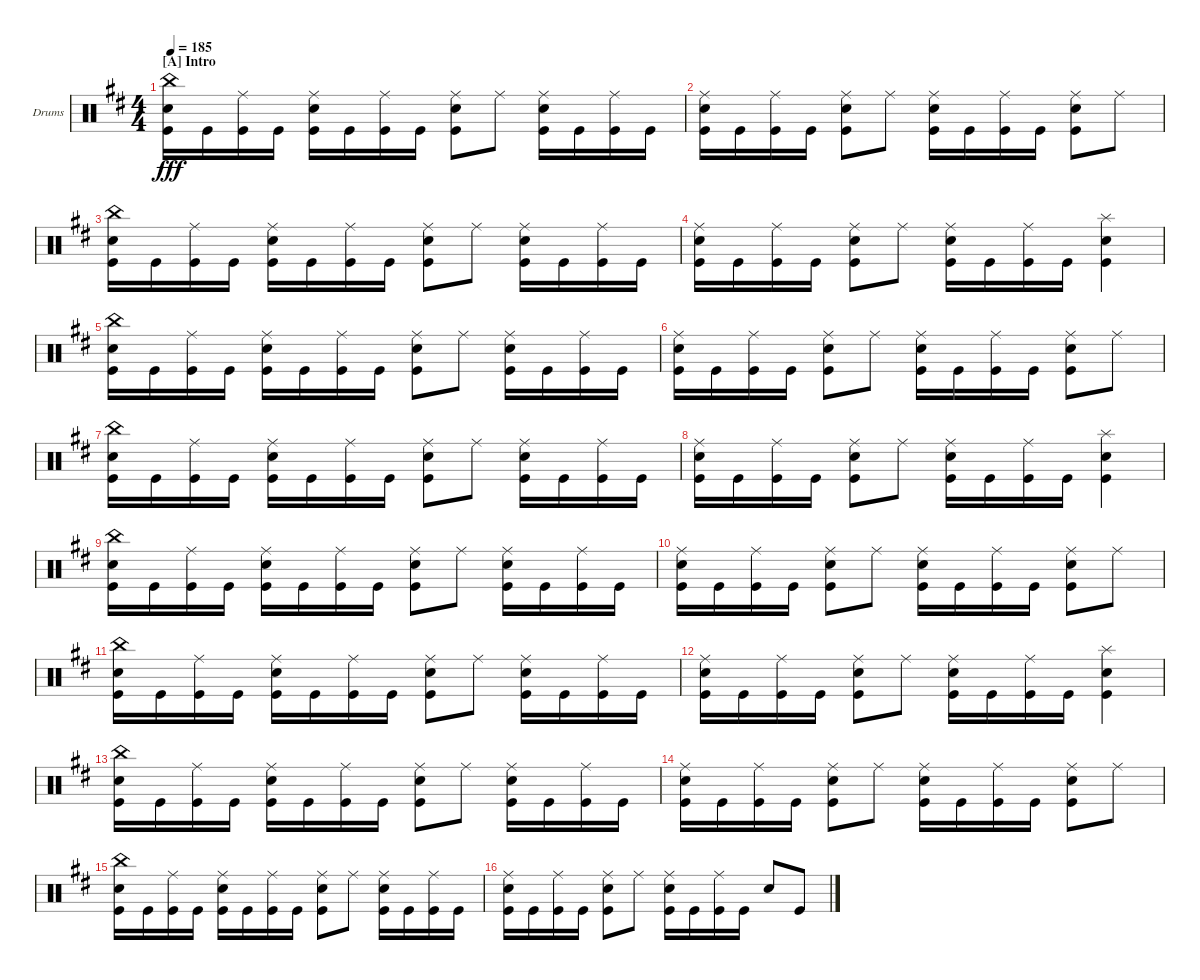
\defaultSystemsLayout 4
\bracketExtendMode groupsimilarinstruments
\firstSystemTrackNameOrientation horizontal
\otherSystemsTrackNameOrientation horizontal
\track ("Drumkit" "Drums") {instrument percussion}
\staff {score}
\articulation defaults
\ts (4 4)
\section ("A" "Intro")
\tempo 185
\clef neutral
\ks bminor
("Snare (hit) 2" "China (hit)" "Kick (hit)").16{dy fff} "Kick (hit)".16 ("Kick (hit)" "Ride (middle)").16 "Kick (hit)".16 ("Snare (hit) 2" "Ride (middle)" "Kick (hit)").16 "Kick (hit)".16 ("Kick (hit)" "Ride (middle)").16 "Kick (hit)".16 ("Snare (hit) 2" "Ride (middle)" "Kick (hit)").8 "Ride (middle)".8 ("Snare (hit) 2" "Ride (middle)" "Kick (hit)").16 "Kick (hit)".16 ("Kick (hit)" "Ride (middle)").16 "Kick (hit)".16 |
("Snare (hit) 2" "Ride (middle)" "Kick (hit)").16 "Kick (hit)".16 ("Kick (hit)" "Ride (middle)").16 "Kick (hit)".16 ("Snare (hit) 2" "Ride (middle)" "Kick (hit)").8 "Ride (middle)".8 ("Snare (hit) 2" "Ride (middle)" "Kick (hit)").16 "Kick (hit)".16 ("Kick (hit)" "Ride (middle)").16 "Kick (hit)".16 ("Snare (hit) 2" "Ride (middle)" "Kick (hit)").8 "Ride (middle)".8 |
("Snare (hit) 2" "China (hit)" "Kick (hit)").16 "Kick (hit)".16 ("Kick (hit)" "Ride (middle)").16 "Kick (hit)".16 ("Snare (hit) 2" "Ride (middle)" "Kick (hit)").16 "Kick (hit)".16 ("Kick (hit)" "Ride (middle)").16 "Kick (hit)".16 ("Snare (hit) 2" "Ride (middle)" "Kick (hit)").8 "Ride (middle)".8 ("Snare (hit) 2" "Ride (middle)" "Kick (hit)").16 "Kick (hit)".16 ("Kick (hit)" "Ride (middle)").16 "Kick (hit)".16 |
("Snare (hit) 2" "Ride (middle)" "Kick (hit)").16 "Kick (hit)".16 ("Kick (hit)" "Ride (middle)").16 "Kick (hit)".16 ("Snare (hit) 2" "Ride (middle)" "Kick (hit)").8 "Ride (middle)".8 ("Snare (hit) 2" "Ride (middle)" "Kick (hit)").16 "Kick (hit)".16 ("Kick (hit)" "Ride (middle)").16 "Kick (hit)".16 ("Snare (hit) 2" "Kick (hit)" "Splash (hit)").4 |
("Snare (hit) 2" "China (hit)" "Kick (hit)").16 "Kick (hit)".16 ("Kick (hit)" "Ride (middle)").16 "Kick (hit)".16 ("Snare (hit) 2" "Ride (middle)" "Kick (hit)").16 "Kick (hit)".16 ("Kick (hit)" "Ride (middle)").16 "Kick (hit)".16 ("Snare (hit) 2" "Ride (middle)" "Kick (hit)").8 "Ride (middle)".8 ("Snare (hit) 2" "Ride (middle)" "Kick (hit)").16 "Kick (hit)".16 ("Kick (hit)" "Ride (middle)").16 "Kick (hit)".16 |
("Snare (hit) 2" "Ride (middle)" "Kick (hit)").16 "Kick (hit)".16 ("Kick (hit)" "Ride (middle)").16 "Kick (hit)".16 ("Snare (hit) 2" "Ride (middle)" "Kick (hit)").8 "Ride (middle)".8 ("Snare (hit) 2" "Ride (middle)" "Kick (hit)").16 "Kick (hit)".16 ("Kick (hit)" "Ride (middle)").16 "Kick (hit)".16 ("Snare (hit) 2" "Ride (middle)" "Kick (hit)").8 "Ride (middle)".8 |
("Snare (hit) 2" "China (hit)" "Kick (hit)").16 "Kick (hit)".16 ("Kick (hit)" "Ride (middle)").16 "Kick (hit)".16 ("Snare (hit) 2" "Ride (middle)" "Kick (hit)").16 "Kick (hit)".16 ("Kick (hit)" "Ride (middle)").16 "Kick (hit)".16 ("Snare (hit) 2" "Ride (middle)" "Kick (hit)").8 "Ride (middle)".8 ("Snare (hit) 2" "Ride (middle)" "Kick (hit)").16 "Kick (hit)".16 ("Kick (hit)" "Ride (middle)").16 "Kick (hit)".16 |
("Snare (hit) 2" "Ride (middle)" "Kick (hit)").16 "Kick (hit)".16 ("Kick (hit)" "Ride (middle)").16 "Kick (hit)".16 ("Snare (hit) 2" "Ride (middle)" "Kick (hit)").8 "Ride (middle)".8 ("Snare (hit) 2" "Ride (middle)" "Kick (hit)").16 "Kick (hit)".16 ("Kick (hit)" "Ride (middle)").16 "Kick (hit)".16 ("Snare (hit) 2" "Kick (hit)" "Splash (hit)").4 |
("Snare (hit) 2" "China (hit)" "Kick (hit)").16 "Kick (hit)".16 ("Kick (hit)" "Ride (middle)").16 "Kick (hit)".16 ("Snare (hit) 2" "Ride (middle)" "Kick (hit)").16 "Kick (hit)".16 ("Kick (hit)" "Ride (middle)").16 "Kick (hit)".16 ("Snare (hit) 2" "Ride (middle)" "Kick (hit)").8 "Ride (middle)".8 ("Snare (hit) 2" "Ride (middle)" "Kick (hit)").16 "Kick (hit)".16 ("Kick (hit)" "Ride (middle)").16 "Kick (hit)".16 |
("Snare (hit) 2" "Ride (middle)" "Kick (hit)").16 "Kick (hit)".16 ("Kick (hit)" "Ride (middle)").16 "Kick (hit)".16 ("Snare (hit) 2" "Ride (middle)" "Kick (hit)").8 "Ride (middle)".8 ("Snare (hit) 2" "Ride (middle)" "Kick (hit)").16 "Kick (hit)".16 ("Kick (hit)" "Ride (middle)").16 "Kick (hit)".16 ("Snare (hit) 2" "Ride (middle)" "Kick (hit)").8 "Ride (middle)".8 |
("Snare (hit) 2" "China (hit)" "Kick (hit)").16 "Kick (hit)".16 ("Kick (hit)" "Ride (middle)").16 "Kick (hit)".16 ("Snare (hit) 2" "Ride (middle)" "Kick (hit)").16 "Kick (hit)".16 ("Kick (hit)" "Ride (middle)").16 "Kick (hit)".16 ("Snare (hit) 2" "Ride (middle)" "Kick (hit)").8 "Ride (middle)".8 ("Snare (hit) 2" "Ride (middle)" "Kick (hit)").16 "Kick (hit)".16 ("Kick (hit)" "Ride (middle)").16 "Kick (hit)".16 |
("Snare (hit) 2" "Ride (middle)" "Kick (hit)").16 "Kick (hit)".16 ("Kick (hit)" "Ride (middle)").16 "Kick (hit)".16 ("Snare (hit) 2" "Ride (middle)" "Kick (hit)").8 "Ride (middle)".8 ("Snare (hit) 2" "Ride (middle)" "Kick (hit)").16 "Kick (hit)".16 ("Kick (hit)" "Ride (middle)").16 "Kick (hit)".16 ("Snare (hit) 2" "Kick (hit)" "Splash (hit)").4 |
("Snare (hit) 2" "China (hit)" "Kick (hit)").16 "Kick (hit)".16 ("Kick (hit)" "Ride (middle)").16 "Kick (hit)".16 ("Snare (hit) 2" "Ride (middle)" "Kick (hit)").16 "Kick (hit)".16 ("Kick (hit)" "Ride (middle)").16 "Kick (hit)".16 ("Snare (hit) 2" "Ride (middle)" "Kick (hit)").8 "Ride (middle)".8 ("Snare (hit) 2" "Ride (middle)" "Kick (hit)").16 "Kick (hit)".16 ("Kick (hit)" "Ride (middle)").16 "Kick (hit)".16 |
("Snare (hit) 2" "Ride (middle)" "Kick (hit)").16 "Kick (hit)".16 ("Kick (hit)" "Ride (middle)").16 "Kick (hit)".16 ("Snare (hit) 2" "Ride (middle)" "Kick (hit)").8 "Ride (middle)".8 ("Snare (hit) 2" "Ride (middle)" "Kick (hit)").16 "Kick (hit)".16 ("Kick (hit)" "Ride (middle)").16 "Kick (hit)".16 ("Snare (hit) 2" "Ride (middle)" "Kick (hit)").8 "Ride (middle)".8 |
("Snare (hit) 2" "China (hit)" "Kick (hit)").16 "Kick (hit)".16 ("Kick (hit)" "Ride (middle)").16 "Kick (hit)".16 ("Snare (hit) 2" "Ride (middle)" "Kick (hit)").16 "Kick (hit)".16 ("Kick (hit)" "Ride (middle)").16 "Kick (hit)".16 ("Snare (hit) 2" "Ride (middle)" "Kick (hit)").8 "Ride (middle)".8 ("Snare (hit) 2" "Ride (middle)" "Kick (hit)").16 "Kick (hit)".16 ("Kick (hit)" "Ride (middle)").16 "Kick (hit)".16 |
("Snare (hit) 2" "Ride (middle)" "Kick (hit)").16 "Kick (hit)".16 ("Kick (hit)" "Ride (middle)").16 "Kick (hit)".16 ("Snare (hit) 2" "Ride (middle)" "Kick (hit)").8 "Ride (middle)".8 ("Snare (hit) 2" "Ride (middle)" "Kick (hit)").16 "Kick (hit)".16 ("Kick (hit)" "Ride (middle)").16 "Kick (hit)".16 "Snare (hit) 2".8 "Kick (hit)".8
